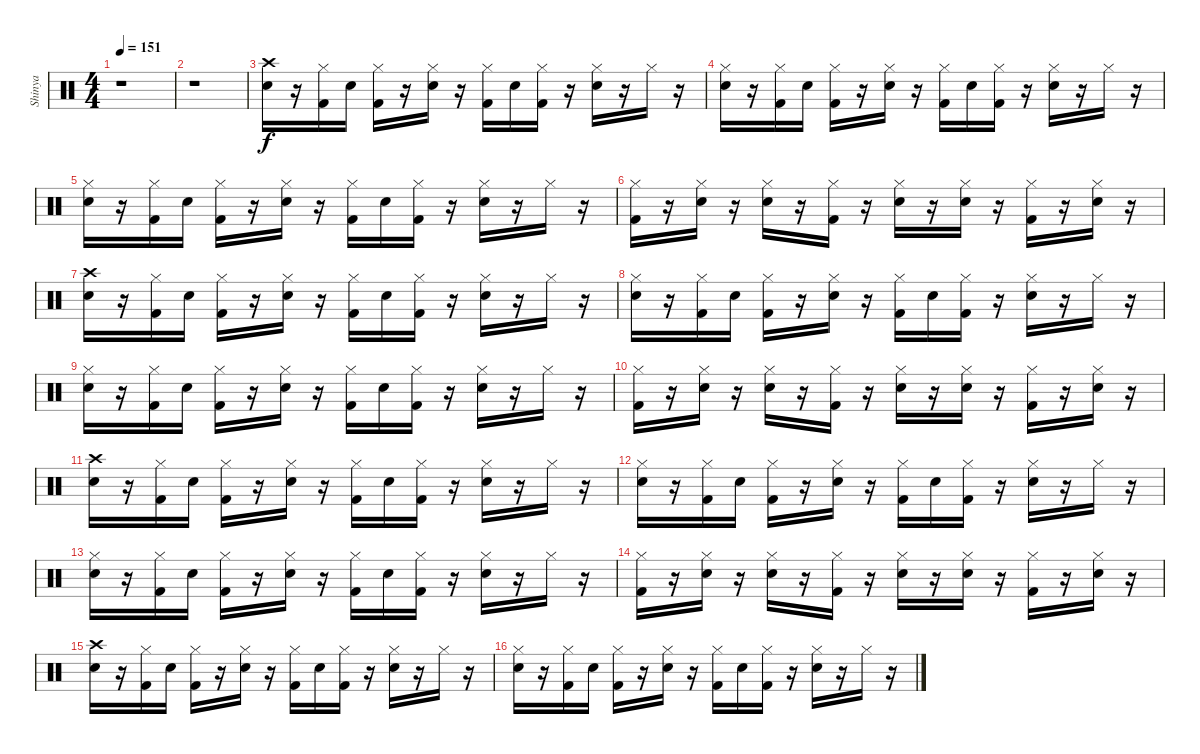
\track ("Shinya" "Shinya") {instrument percussion}
\staff {score}
\articulation defaults
\ts (4 4)
\tempo 151
\clef neutral
\ks c
r.1{dy mf} |
r.1 |
("Snare (hit) 2" "Crash high (hit)").16{dy f} r.16 ("Hi-Hat (closed)" "Kick (hit) 2").16 "Snare (hit) 2".16 ("Kick (hit) 2" "Hi-Hat (closed)").16 r.16 ("Snare (hit) 2" "Hi-Hat (closed)").16 r.16 ("Hi-Hat (closed)" "Kick (hit) 2").16 "Snare (hit) 2".16 ("Kick (hit) 2" "Hi-Hat (closed)").16 r.16 ("Snare (hit) 2" "Hi-Hat (closed)").16 r.16 "Hi-Hat (closed)".16 r.16 |
("Snare (hit) 2" "Hi-Hat (closed)").16 r.16 ("Hi-Hat (closed)" "Kick (hit) 2").16 "Snare (hit) 2".16 ("Kick (hit) 2" "Hi-Hat (closed)").16 r.16 ("Snare (hit) 2" "Hi-Hat (closed)").16 r.16 ("Hi-Hat (closed)" "Kick (hit) 2").16 "Snare (hit) 2".16 ("Kick (hit) 2" "Hi-Hat (closed)").16 r.16 ("Snare (hit) 2" "Hi-Hat (closed)").16 r.16 "Hi-Hat (closed)".16 r.16 |
("Snare (hit) 2" "Hi-Hat (closed)").16 r.16 ("Hi-Hat (closed)" "Kick (hit) 2").16 "Snare (hit) 2".16 ("Kick (hit) 2" "Hi-Hat (closed)").16 r.16 ("Snare (hit) 2" "Hi-Hat (closed)").16 r.16 ("Hi-Hat (closed)" "Kick (hit) 2").16 "Snare (hit) 2".16 ("Kick (hit) 2" "Hi-Hat (closed)").16 r.16 ("Snare (hit) 2" "Hi-Hat (closed)").16 r.16 "Hi-Hat (closed)".16 r.16 |
("Kick (hit) 2" "Hi-Hat (closed)").16 r.16 ("Snare (hit) 2" "Hi-Hat (closed)").16 r.16 ("Snare (hit) 2" "Hi-Hat (closed)").16 r.16 ("Kick (hit) 2" "Hi-Hat (closed)").16 r.16 ("Snare (hit) 2" "Hi-Hat (closed)").16 r.16 ("Snare (hit) 2" "Hi-Hat (closed)").16 r.16 ("Kick (hit) 2" "Hi-Hat (closed)").16 r.16 ("Snare (hit) 2" "Hi-Hat (closed)").16 r.16 |
("Snare (hit) 2" "Crash high (hit)").16 r.16 ("Hi-Hat (closed)" "Kick (hit) 2").16 "Snare (hit) 2".16 ("Kick (hit) 2" "Hi-Hat (closed)").16 r.16 ("Snare (hit) 2" "Hi-Hat (closed)").16 r.16 ("Hi-Hat (closed)" "Kick (hit) 2").16 "Snare (hit) 2".16 ("Kick (hit) 2" "Hi-Hat (closed)").16 r.16 ("Snare (hit) 2" "Hi-Hat (closed)").16 r.16 "Hi-Hat (closed)".16 r.16 |
("Snare (hit) 2" "Hi-Hat (closed)").16 r.16 ("Hi-Hat (closed)" "Kick (hit) 2").16 "Snare (hit) 2".16 ("Kick (hit) 2" "Hi-Hat (closed)").16 r.16 ("Snare (hit) 2" "Hi-Hat (closed)").16 r.16 ("Hi-Hat (closed)" "Kick (hit) 2").16 "Snare (hit) 2".16 ("Kick (hit) 2" "Hi-Hat (closed)").16 r.16 ("Snare (hit) 2" "Hi-Hat (closed)").16 r.16 "Hi-Hat (closed)".16 r.16 |
("Snare (hit) 2" "Hi-Hat (closed)").16 r.16 ("Hi-Hat (closed)" "Kick (hit) 2").16 "Snare (hit) 2".16 ("Kick (hit) 2" "Hi-Hat (closed)").16 r.16 ("Snare (hit) 2" "Hi-Hat (closed)").16 r.16 ("Hi-Hat (closed)" "Kick (hit) 2").16 "Snare (hit) 2".16 ("Kick (hit) 2" "Hi-Hat (closed)").16 r.16 ("Snare (hit) 2" "Hi-Hat (closed)").16 r.16 "Hi-Hat (closed)".16 r.16 |
("Kick (hit) 2" "Hi-Hat (closed)").16 r.16 ("Snare (hit) 2" "Hi-Hat (closed)").16 r.16 ("Snare (hit) 2" "Hi-Hat (closed)").16 r.16 ("Kick (hit) 2" "Hi-Hat (closed)").16 r.16 ("Snare (hit) 2" "Hi-Hat (closed)").16 r.16 ("Snare (hit) 2" "Hi-Hat (closed)").16 r.16 ("Kick (hit) 2" "Hi-Hat (closed)").16 r.16 ("Snare (hit) 2" "Hi-Hat (closed)").16 r.16 |
("Snare (hit) 2" "Crash high (hit)").16 r.16 ("Hi-Hat (closed)" "Kick (hit) 2").16 "Snare (hit) 2".16 ("Kick (hit) 2" "Hi-Hat (closed)").16 r.16 ("Snare (hit) 2" "Hi-Hat (closed)").16 r.16 ("Hi-Hat (closed)" "Kick (hit) 2").16 "Snare (hit) 2".16 ("Kick (hit) 2" "Hi-Hat (closed)").16 r.16 ("Snare (hit) 2" "Hi-Hat (closed)").16 r.16 "Hi-Hat (closed)".16 r.16 |
("Snare (hit) 2" "Hi-Hat (closed)").16 r.16 ("Hi-Hat (closed)" "Kick (hit) 2").16 "Snare (hit) 2".16 ("Kick (hit) 2" "Hi-Hat (closed)").16 r.16 ("Snare (hit) 2" "Hi-Hat (closed)").16 r.16 ("Hi-Hat (closed)" "Kick (hit) 2").16 "Snare (hit) 2".16 ("Kick (hit) 2" "Hi-Hat (closed)").16 r.16 ("Snare (hit) 2" "Hi-Hat (closed)").16 r.16 "Hi-Hat (closed)".16 r.16 |
("Snare (hit) 2" "Hi-Hat (closed)").16 r.16 ("Hi-Hat (closed)" "Kick (hit) 2").16 "Snare (hit) 2".16 ("Kick (hit) 2" "Hi-Hat (closed)").16 r.16 ("Snare (hit) 2" "Hi-Hat (closed)").16 r.16 ("Hi-Hat (closed)" "Kick (hit) 2").16 "Snare (hit) 2".16 ("Kick (hit) 2" "Hi-Hat (closed)").16 r.16 ("Snare (hit) 2" "Hi-Hat (closed)").16 r.16 "Hi-Hat (closed)".16 r.16 |
("Kick (hit) 2" "Hi-Hat (closed)").16 r.16 ("Snare (hit) 2" "Hi-Hat (closed)").16 r.16 ("Snare (hit) 2" "Hi-Hat (closed)").16 r.16 ("Kick (hit) 2" "Hi-Hat (closed)").16 r.16 ("Snare (hit) 2" "Hi-Hat (closed)").16 r.16 ("Snare (hit) 2" "Hi-Hat (closed)").16 r.16 ("Kick (hit) 2" "Hi-Hat (closed)").16 r.16 ("Snare (hit) 2" "Hi-Hat (closed)").16 r.16 |
("Snare (hit) 2" "Crash high (hit)").16 r.16 ("Hi-Hat (closed)" "Kick (hit) 2").16 "Snare (hit) 2".16 ("Kick (hit) 2" "Hi-Hat (closed)").16 r.16 ("Snare (hit) 2" "Hi-Hat (closed)").16 r.16 ("Hi-Hat (closed)" "Kick (hit) 2").16 "Snare (hit) 2".16 ("Kick (hit) 2" "Hi-Hat (closed)").16 r.16 ("Snare (hit) 2" "Hi-Hat (closed)").16 r.16 "Hi-Hat (closed)".16 r.16 |
("Snare (hit) 2" "Hi-Hat (closed)").16 r.16 ("Hi-Hat (closed)" "Kick (hit) 2").16 "Snare (hit) 2".16 ("Kick (hit) 2" "Hi-Hat (closed)").16 r.16 ("Snare (hit) 2" "Hi-Hat (closed)").16 r.16 ("Hi-Hat (closed)" "Kick (hit) 2").16 "Snare (hit) 2".16 ("Kick (hit) 2" "Hi-Hat (closed)").16 r.16 ("Snare (hit) 2" "Hi-Hat (closed)").16 r.16 "Hi-Hat (closed)".16 r.16
